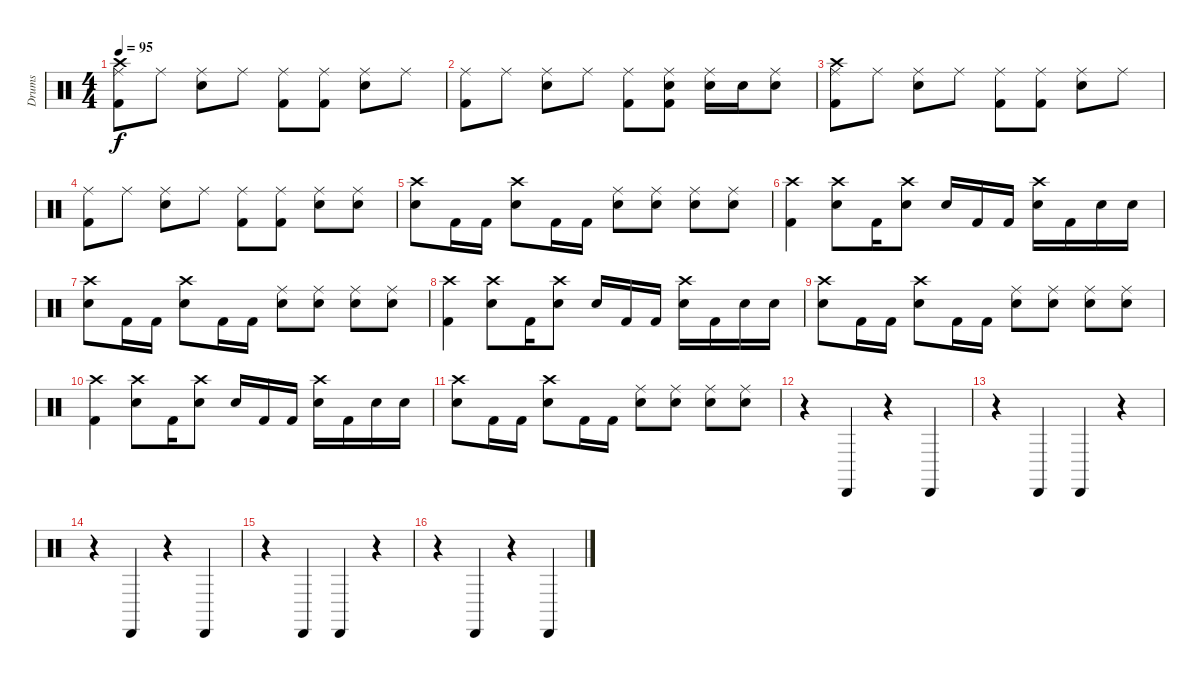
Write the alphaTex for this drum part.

\track ("Drums" "Drums") {instrument percussion}
\staff {score}
\articulation defaults
\ts (4 4)
\tempo 95
\clef neutral
\ks c
("Ride (middle)" "Crash high (hit)" "Kick (hit) 2").8{dy f} "Ride (middle)".8 ("Ride (middle)" "Electric Snare (hit)").8 "Ride (middle)".8 ("Ride (middle)" "Kick (hit) 2").8 ("Ride (middle)" "Kick (hit) 2").8 ("Ride (middle)" "Electric Snare (hit)").8 "Ride (middle)".8 |
("Ride (middle)" "Kick (hit) 2").8 "Ride (middle)".8 ("Ride (middle)" "Electric Snare (hit)").8 "Ride (middle)".8 ("Ride (middle)" "Kick (hit) 2").8 ("Electric Snare (hit)" "Ride (middle)" "Kick (hit) 2").8 ("Electric Snare (hit)" "Ride (middle)").16 "Electric Snare (hit)".16 ("Ride (middle)" "Electric Snare (hit)").8 |
("Ride (middle)" "Crash high (hit)" "Kick (hit) 2").8 "Ride (middle)".8 ("Ride (middle)" "Electric Snare (hit)").8 "Ride (middle)".8 ("Ride (middle)" "Kick (hit) 2").8 ("Ride (middle)" "Kick (hit) 2").8 ("Ride (middle)" "Electric Snare (hit)").8 "Ride (middle)".8 |
("Ride (middle)" "Kick (hit) 2").8 "Ride (middle)".8 ("Ride (middle)" "Electric Snare (hit)").8 "Ride (middle)".8 ("Ride (middle)" "Kick (hit) 2").8 ("Ride (middle)" "Kick (hit) 2").8 ("Ride (middle)" "Electric Snare (hit)").8 ("Ride (middle)" "Electric Snare (hit)").8 |
("Crash high (hit)" "Electric Snare (hit)").8 "Kick (hit) 2".16 "Kick (hit) 2".16 ("Crash high (hit)" "Electric Snare (hit)").8 "Kick (hit) 2".16 "Kick (hit) 2".16 ("Ride (middle)" "Electric Snare (hit)").8 ("Ride (middle)" "Electric Snare (hit)").8 ("Ride (middle)" "Electric Snare (hit)").8 ("Ride (middle)" "Electric Snare (hit)").8 |
("Crash high (hit)" "Kick (hit) 2").4 ("Crash high (hit)" "Electric Snare (hit)").8 "Kick (hit) 2".16 ("Crash high (hit)" "Electric Snare (hit)").8 "Electric Snare (hit)".16 "Kick (hit) 2".16 "Kick (hit) 2".16 ("Crash high (hit)" "Electric Snare (hit)").16 "Kick (hit) 2".16 "Electric Snare (hit)".16 "Electric Snare (hit)".16 |
("Crash high (hit)" "Electric Snare (hit)").8 "Kick (hit) 2".16 "Kick (hit) 2".16 ("Crash high (hit)" "Electric Snare (hit)").8 "Kick (hit) 2".16 "Kick (hit) 2".16 ("Ride (middle)" "Electric Snare (hit)").8 ("Ride (middle)" "Electric Snare (hit)").8 ("Ride (middle)" "Electric Snare (hit)").8 ("Ride (middle)" "Electric Snare (hit)").8 |
("Crash high (hit)" "Kick (hit) 2").4 ("Crash high (hit)" "Electric Snare (hit)").8 "Kick (hit) 2".16 ("Crash high (hit)" "Electric Snare (hit)").8 "Electric Snare (hit)".16 "Kick (hit) 2".16 "Kick (hit) 2".16 ("Crash high (hit)" "Electric Snare (hit)").16 "Kick (hit) 2".16 "Electric Snare (hit)".16 "Electric Snare (hit)".16 |
("Crash high (hit)" "Electric Snare (hit)").8 "Kick (hit) 2".16 "Kick (hit) 2".16 ("Crash high (hit)" "Electric Snare (hit)").8 "Kick (hit) 2".16 "Kick (hit) 2".16 ("Ride (middle)" "Electric Snare (hit)").8 ("Ride (middle)" "Electric Snare (hit)").8 ("Ride (middle)" "Electric Snare (hit)").8 ("Ride (middle)" "Electric Snare (hit)").8 |
("Crash high (hit)" "Kick (hit) 2").4 ("Crash high (hit)" "Electric Snare (hit)").8 "Kick (hit) 2".16 ("Crash high (hit)" "Electric Snare (hit)").8 "Electric Snare (hit)".16 "Kick (hit) 2".16 "Kick (hit) 2".16 ("Crash high (hit)" "Electric Snare (hit)").16 "Kick (hit) 2".16 "Electric Snare (hit)".16 "Electric Snare (hit)".16 |
("Crash high (hit)" "Electric Snare (hit)").8 "Kick (hit) 2".16 "Kick (hit) 2".16 ("Crash high (hit)" "Electric Snare (hit)").8 "Kick (hit) 2".16 "Kick (hit) 2".16 ("Ride (middle)" "Electric Snare (hit)").8 ("Ride (middle)" "Electric Snare (hit)").8 ("Ride (middle)" "Electric Snare (hit)").8 ("Ride (middle)" "Electric Snare (hit)").8 |
r.4 "Cabasa (hit)".4 r.4 "Cabasa (hit)".4 |
r.4 "Cabasa (hit)".4 "Cabasa (hit)".4 r.4 |
r.4 "Cabasa (hit)".4 r.4 "Cabasa (hit)".4 |
r.4 "Cabasa (hit)".4 "Cabasa (hit)".4 r.4 |
r.4 "Cabasa (hit)".4 r.4 "Cabasa (hit)".4
